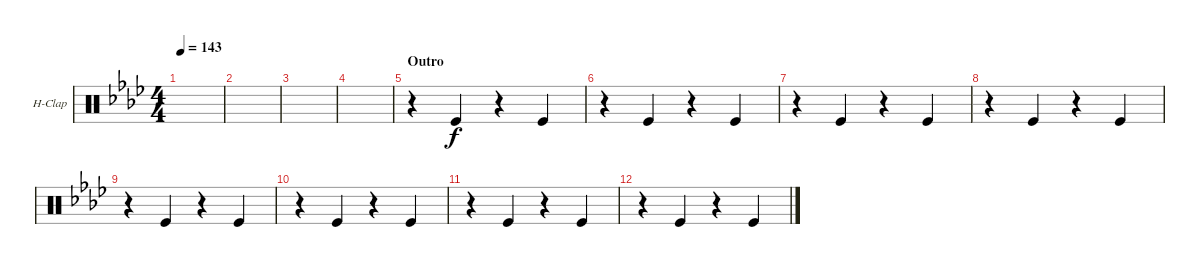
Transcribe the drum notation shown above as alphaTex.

\defaultSystemsLayout 4
\bracketExtendMode groupsimilarinstruments
\firstSystemTrackNameOrientation horizontal
\otherSystemsTrackNameOrientation horizontal
\track ("Hand Clap" "H-Clap") {instrument percussion}
\staff {score}
\articulation defaults
\ts (4 4)
\tempo 143
\clef neutral
\ks fminor
|
|
|
|
\section ("" "Outro")
r.4 "Kick (hit)".4 r.4 "Kick (hit)".4 |
r.4 "Kick (hit)".4 r.4 "Kick (hit)".4 |
r.4 "Kick (hit)".4 r.4 "Kick (hit)".4 |
r.4 "Kick (hit)".4 r.4 "Kick (hit)".4 |
r.4 "Kick (hit)".4 r.4 "Kick (hit)".4 |
r.4 "Kick (hit)".4 r.4 "Kick (hit)".4 |
r.4 "Kick (hit)".4 r.4 "Kick (hit)".4 |
r.4 "Kick (hit)".4 r.4 "Kick (hit)".4
